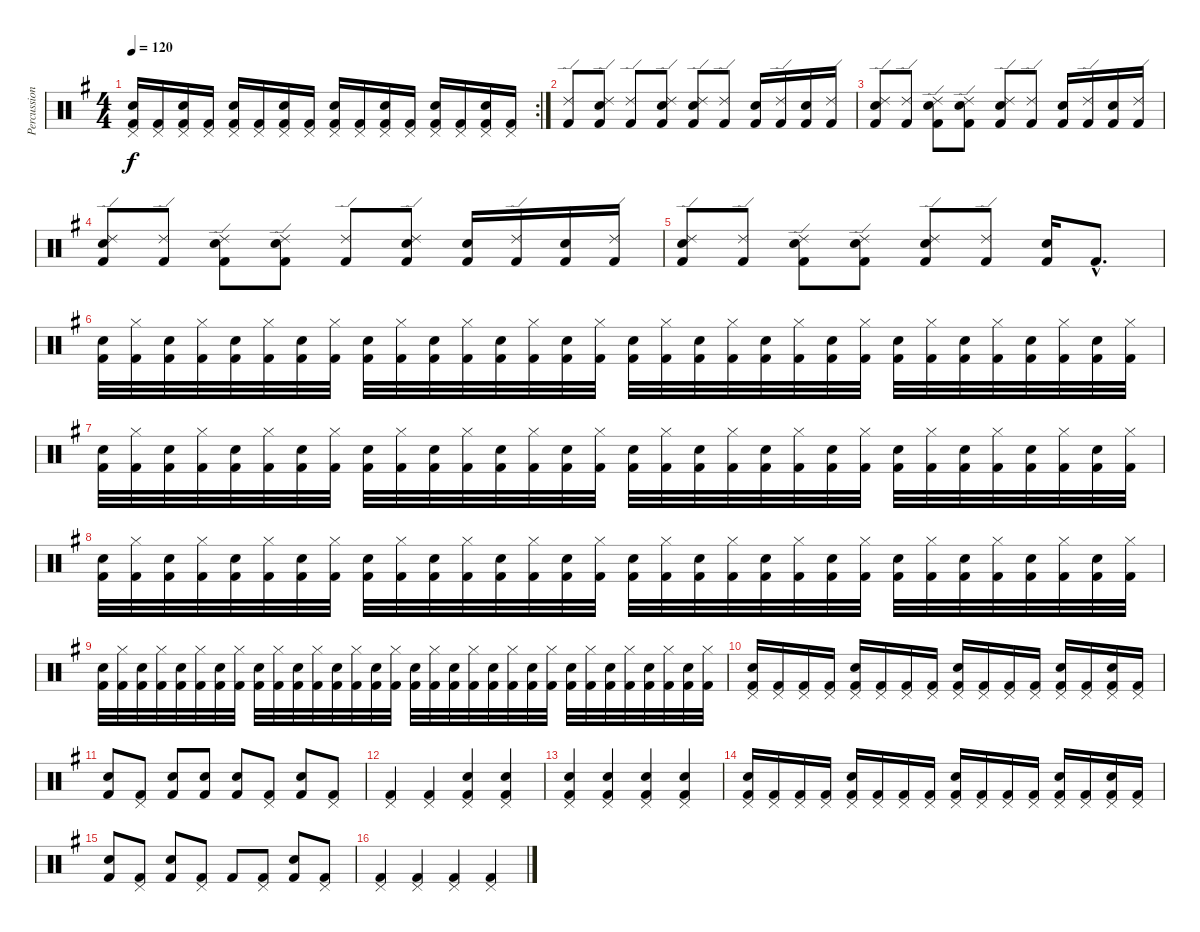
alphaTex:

\track ("Percussion" "Percussion") {instrument percussion}
\staff {score}
\articulation defaults
\rc 2
\ts (4 4)
\tempo 120
\clef neutral
\ks eminor
("Pedal Hi-Hat (hit)" "Snare (hit) 2" "Kick (hit) 2").16{dy f} ("Pedal Hi-Hat (hit)" "Kick (hit) 2").16 ("Pedal Hi-Hat (hit)" "Snare (hit) 2" "Kick (hit) 2").16 ("Pedal Hi-Hat (hit)" "Kick (hit) 2").16 ("Pedal Hi-Hat (hit)" "Snare (hit) 2" "Kick (hit) 2").16 ("Pedal Hi-Hat (hit)" "Kick (hit) 2").16 ("Pedal Hi-Hat (hit)" "Snare (hit) 2" "Kick (hit) 2").16 ("Pedal Hi-Hat (hit)" "Kick (hit) 2").16 ("Pedal Hi-Hat (hit)" "Snare (hit) 2" "Kick (hit) 2").16 ("Pedal Hi-Hat (hit)" "Kick (hit) 2").16 ("Pedal Hi-Hat (hit)" "Snare (hit) 2" "Kick (hit) 2").16 ("Pedal Hi-Hat (hit)" "Kick (hit) 2").16 ("Pedal Hi-Hat (hit)" "Snare (hit) 2" "Kick (hit) 2").16 ("Pedal Hi-Hat (hit)" "Kick (hit) 2").16 ("Pedal Hi-Hat (hit)" "Snare (hit) 2" "Kick (hit) 2").16 ("Pedal Hi-Hat (hit)" "Kick (hit) 2").16 |
("Ride (edge) 2" "Kick (hit) 2").8 ("Ride (edge) 2" "Snare (hit) 2" "Kick (hit) 2").8 ("Ride (edge) 2" "Kick (hit) 2").8 ("Ride (edge) 2" "Snare (hit) 2" "Kick (hit) 2").8 ("Ride (edge) 2" "Snare (hit) 2" "Kick (hit) 2").8 ("Ride (edge) 2" "Kick (hit) 2").8 ("Snare (hit) 2" "Kick (hit) 2").16 ("Ride (edge) 2" "Kick (hit) 2").16 ("Snare (hit) 2" "Kick (hit) 2").16 ("Ride (edge) 2" "Kick (hit) 2").16 |
("Ride (edge) 2" "Snare (hit) 2" "Kick (hit) 2").8 ("Ride (edge) 2" "Kick (hit) 2").8 ("Ride (edge) 2" "Snare (hit) 2" "Kick (hit) 2").8 ("Ride (edge) 2" "Snare (hit) 2" "Kick (hit) 2").8 ("Ride (edge) 2" "Snare (hit) 2" "Kick (hit) 2").8 ("Ride (edge) 2" "Kick (hit) 2").8 ("Snare (hit) 2" "Kick (hit) 2").16 ("Ride (edge) 2" "Kick (hit) 2").16 ("Snare (hit) 2" "Kick (hit) 2").16 ("Ride (edge) 2" "Kick (hit) 2").16 |
("Ride (edge) 2" "Snare (hit) 2" "Kick (hit) 2").8 ("Ride (edge) 2" "Kick (hit) 2").8 ("Ride (edge) 2" "Snare (hit) 2" "Kick (hit) 2").8 ("Ride (edge) 2" "Snare (hit) 2" "Kick (hit) 2").8 ("Ride (edge) 2" "Kick (hit) 2").8 ("Ride (edge) 2" "Snare (hit) 2" "Kick (hit) 2").8 ("Snare (hit) 2" "Kick (hit) 2").16 ("Ride (edge) 2" "Kick (hit) 2").16 ("Snare (hit) 2" "Kick (hit) 2").16 ("Ride (edge) 2" "Kick (hit) 2").16 |
("Ride (edge) 2" "Snare (hit) 2" "Kick (hit) 2").8 ("Ride (edge) 2" "Kick (hit) 2").8 ("Ride (edge) 2" "Snare (hit) 2" "Kick (hit) 2").8 ("Ride (edge) 2" "Snare (hit) 2" "Kick (hit) 2").8 ("Ride (edge) 2" "Snare (hit) 2" "Kick (hit) 2").8 ("Ride (edge) 2" "Kick (hit) 2").8 ("Snare (hit) 2" "Kick (hit) 2").16 "Kick (hit) 2"{hac}.8{d} |
("Snare (hit) 2" "Kick (hit) 2").32 ("Hi-Hat (closed)" "Kick (hit) 2").32 ("Snare (hit) 2" "Kick (hit) 2").32 ("Hi-Hat (closed)" "Kick (hit) 2").32 ("Snare (hit) 2" "Kick (hit) 2").32 ("Hi-Hat (closed)" "Kick (hit) 2").32 ("Snare (hit) 2" "Kick (hit) 2").32 ("Hi-Hat (closed)" "Kick (hit) 2").32 ("Snare (hit) 2" "Kick (hit) 2").32 ("Hi-Hat (closed)" "Kick (hit) 2").32 ("Snare (hit) 2" "Kick (hit) 2").32 ("Hi-Hat (closed)" "Kick (hit) 2").32 ("Snare (hit) 2" "Kick (hit) 2").32 ("Hi-Hat (closed)" "Kick (hit) 2").32 ("Snare (hit) 2" "Kick (hit) 2").32 ("Hi-Hat (closed)" "Kick (hit) 2").32 ("Snare (hit) 2" "Kick (hit) 2").32 ("Hi-Hat (closed)" "Kick (hit) 2").32 ("Snare (hit) 2" "Kick (hit) 2").32 ("Hi-Hat (closed)" "Kick (hit) 2").32 ("Snare (hit) 2" "Kick (hit) 2").32 ("Hi-Hat (closed)" "Kick (hit) 2").32 ("Snare (hit) 2" "Kick (hit) 2").32 ("Hi-Hat (closed)" "Kick (hit) 2").32 ("Snare (hit) 2" "Kick (hit) 2").32 ("Hi-Hat (closed)" "Kick (hit) 2").32 ("Snare (hit) 2" "Kick (hit) 2").32 ("Hi-Hat (closed)" "Kick (hit) 2").32 ("Snare (hit) 2" "Kick (hit) 2").32 ("Hi-Hat (closed)" "Kick (hit) 2").32 ("Snare (hit) 2" "Kick (hit) 2").32 ("Hi-Hat (closed)" "Kick (hit) 2").32 |
("Snare (hit) 2" "Kick (hit) 2").32 ("Hi-Hat (closed)" "Kick (hit) 2").32 ("Snare (hit) 2" "Kick (hit) 2").32 ("Hi-Hat (closed)" "Kick (hit) 2").32 ("Snare (hit) 2" "Kick (hit) 2").32 ("Hi-Hat (closed)" "Kick (hit) 2").32 ("Snare (hit) 2" "Kick (hit) 2").32 ("Hi-Hat (closed)" "Kick (hit) 2").32 ("Snare (hit) 2" "Kick (hit) 2").32 ("Hi-Hat (closed)" "Kick (hit) 2").32 ("Snare (hit) 2" "Kick (hit) 2").32 ("Hi-Hat (closed)" "Kick (hit) 2").32 ("Snare (hit) 2" "Kick (hit) 2").32 ("Hi-Hat (closed)" "Kick (hit) 2").32 ("Snare (hit) 2" "Kick (hit) 2").32 ("Hi-Hat (closed)" "Kick (hit) 2").32 ("Snare (hit) 2" "Kick (hit) 2").32 ("Hi-Hat (closed)" "Kick (hit) 2").32 ("Snare (hit) 2" "Kick (hit) 2").32 ("Hi-Hat (closed)" "Kick (hit) 2").32 ("Snare (hit) 2" "Kick (hit) 2").32 ("Hi-Hat (closed)" "Kick (hit) 2").32 ("Snare (hit) 2" "Kick (hit) 2").32 ("Hi-Hat (closed)" "Kick (hit) 2").32 ("Snare (hit) 2" "Kick (hit) 2").32 ("Hi-Hat (closed)" "Kick (hit) 2").32 ("Snare (hit) 2" "Kick (hit) 2").32 ("Hi-Hat (closed)" "Kick (hit) 2").32 ("Snare (hit) 2" "Kick (hit) 2").32 ("Hi-Hat (closed)" "Kick (hit) 2").32 ("Snare (hit) 2" "Kick (hit) 2").32 ("Hi-Hat (closed)" "Kick (hit) 2").32 |
("Snare (hit) 2" "Kick (hit) 2").32 ("Hi-Hat (closed)" "Kick (hit) 2").32 ("Snare (hit) 2" "Kick (hit) 2").32 ("Hi-Hat (closed)" "Kick (hit) 2").32 ("Snare (hit) 2" "Kick (hit) 2").32 ("Hi-Hat (closed)" "Kick (hit) 2").32 ("Snare (hit) 2" "Kick (hit) 2").32 ("Hi-Hat (closed)" "Kick (hit) 2").32 ("Snare (hit) 2" "Kick (hit) 2").32 ("Hi-Hat (closed)" "Kick (hit) 2").32 ("Snare (hit) 2" "Kick (hit) 2").32 ("Hi-Hat (closed)" "Kick (hit) 2").32 ("Snare (hit) 2" "Kick (hit) 2").32 ("Hi-Hat (closed)" "Kick (hit) 2").32 ("Snare (hit) 2" "Kick (hit) 2").32 ("Hi-Hat (closed)" "Kick (hit) 2").32 ("Snare (hit) 2" "Kick (hit) 2").32 ("Hi-Hat (closed)" "Kick (hit) 2").32 ("Snare (hit) 2" "Kick (hit) 2").32 ("Hi-Hat (closed)" "Kick (hit) 2").32 ("Snare (hit) 2" "Kick (hit) 2").32 ("Hi-Hat (closed)" "Kick (hit) 2").32 ("Snare (hit) 2" "Kick (hit) 2").32 ("Hi-Hat (closed)" "Kick (hit) 2").32 ("Snare (hit) 2" "Kick (hit) 2").32 ("Hi-Hat (closed)" "Kick (hit) 2").32 ("Snare (hit) 2" "Kick (hit) 2").32 ("Hi-Hat (closed)" "Kick (hit) 2").32 ("Snare (hit) 2" "Kick (hit) 2").32 ("Hi-Hat (closed)" "Kick (hit) 2").32 ("Snare (hit) 2" "Kick (hit) 2").32 ("Hi-Hat (closed)" "Kick (hit) 2").32 |
("Snare (hit) 2" "Kick (hit) 2").32 ("Hi-Hat (closed)" "Kick (hit) 2").32 ("Snare (hit) 2" "Kick (hit) 2").32 ("Hi-Hat (closed)" "Kick (hit) 2").32 ("Snare (hit) 2" "Kick (hit) 2").32 ("Hi-Hat (closed)" "Kick (hit) 2").32 ("Snare (hit) 2" "Kick (hit) 2").32 ("Hi-Hat (closed)" "Kick (hit) 2").32 ("Snare (hit) 2" "Kick (hit) 2").32 ("Hi-Hat (closed)" "Kick (hit) 2").32 ("Snare (hit) 2" "Kick (hit) 2").32 ("Hi-Hat (closed)" "Kick (hit) 2").32 ("Snare (hit) 2" "Kick (hit) 2").32 ("Hi-Hat (closed)" "Kick (hit) 2").32 ("Snare (hit) 2" "Kick (hit) 2").32 ("Hi-Hat (closed)" "Kick (hit) 2").32 ("Snare (hit) 2" "Kick (hit) 2").32 ("Hi-Hat (closed)" "Kick (hit) 2").32 ("Snare (hit) 2" "Kick (hit) 2").32 ("Hi-Hat (closed)" "Kick (hit) 2").32 ("Snare (hit) 2" "Kick (hit) 2").32 ("Hi-Hat (closed)" "Kick (hit) 2").32 ("Snare (hit) 2" "Kick (hit) 2").32 ("Hi-Hat (closed)" "Kick (hit) 2").32 ("Snare (hit) 2" "Kick (hit) 2").32 ("Hi-Hat (closed)" "Kick (hit) 2").32 ("Snare (hit) 2" "Kick (hit) 2").32 ("Hi-Hat (closed)" "Kick (hit) 2").32 ("Snare (hit) 2" "Kick (hit) 2").32 ("Hi-Hat (closed)" "Kick (hit) 2").32 ("Snare (hit) 2" "Kick (hit) 2").32 ("Hi-Hat (closed)" "Kick (hit) 2").32 |
("Pedal Hi-Hat (hit)" "Electric Snare (hit)" "Kick (hit) 2").16 ("Pedal Hi-Hat (hit)" "Kick (hit) 2").16 ("Pedal Hi-Hat (hit)" "Kick (hit) 2").16 ("Pedal Hi-Hat (hit)" "Kick (hit) 2").16 ("Pedal Hi-Hat (hit)" "Electric Snare (hit)" "Kick (hit) 2").16 ("Pedal Hi-Hat (hit)" "Kick (hit) 2").16 ("Pedal Hi-Hat (hit)" "Kick (hit) 2").16 ("Pedal Hi-Hat (hit)" "Kick (hit) 2").16 ("Pedal Hi-Hat (hit)" "Electric Snare (hit)" "Kick (hit) 2").16 ("Pedal Hi-Hat (hit)" "Kick (hit) 2").16 ("Pedal Hi-Hat (hit)" "Kick (hit) 2").16 ("Pedal Hi-Hat (hit)" "Kick (hit) 2").16 ("Pedal Hi-Hat (hit)" "Electric Snare (hit)" "Kick (hit) 2").16 ("Pedal Hi-Hat (hit)" "Kick (hit) 2").16 ("Pedal Hi-Hat (hit)" "Electric Snare (hit)" "Kick (hit) 2").16 ("Pedal Hi-Hat (hit)" "Kick (hit) 2").16 |
("Electric Snare (hit)" "Kick (hit) 2").8 ("Pedal Hi-Hat (hit)" "Kick (hit) 2").8 ("Electric Snare (hit)" "Kick (hit) 2").8 ("Snare (hit)" "Kick (hit) 2").8 ("Electric Snare (hit)" "Kick (hit) 2").8 ("Pedal Hi-Hat (hit)" "Kick (hit) 2").8 ("Electric Snare (hit)" "Kick (hit) 2").8 ("Pedal Hi-Hat (hit)" "Kick (hit) 2").8 |
("Pedal Hi-Hat (hit)" "Kick (hit) 2").4 ("Pedal Hi-Hat (hit)" "Kick (hit) 2").4 ("Pedal Hi-Hat (hit)" "Electric Snare (hit)" "Kick (hit) 2").4 ("Pedal Hi-Hat (hit)" "Electric Snare (hit)" "Kick (hit) 2").4 |
("Pedal Hi-Hat (hit)" "Electric Snare (hit)" "Kick (hit) 2").4 ("Pedal Hi-Hat (hit)" "Electric Snare (hit)" "Kick (hit) 2").4 ("Pedal Hi-Hat (hit)" "Electric Snare (hit)" "Kick (hit) 2").4 ("Pedal Hi-Hat (hit)" "Electric Snare (hit)" "Kick (hit) 2").4 |
("Pedal Hi-Hat (hit)" "Electric Snare (hit)" "Kick (hit) 2").16 ("Pedal Hi-Hat (hit)" "Kick (hit) 2").16 ("Pedal Hi-Hat (hit)" "Kick (hit) 2").16 ("Pedal Hi-Hat (hit)" "Kick (hit) 2").16 ("Pedal Hi-Hat (hit)" "Electric Snare (hit)" "Kick (hit) 2").16 ("Pedal Hi-Hat (hit)" "Kick (hit) 2").16 ("Pedal Hi-Hat (hit)" "Kick (hit) 2").16 ("Pedal Hi-Hat (hit)" "Kick (hit) 2").16 ("Pedal Hi-Hat (hit)" "Electric Snare (hit)" "Kick (hit) 2").16 ("Pedal Hi-Hat (hit)" "Kick (hit) 2").16 ("Pedal Hi-Hat (hit)" "Kick (hit) 2").16 ("Pedal Hi-Hat (hit)" "Kick (hit) 2").16 ("Pedal Hi-Hat (hit)" "Electric Snare (hit)" "Kick (hit) 2").16 ("Pedal Hi-Hat (hit)" "Kick (hit) 2").16 ("Pedal Hi-Hat (hit)" "Electric Snare (hit)" "Kick (hit) 2").16 ("Pedal Hi-Hat (hit)" "Kick (hit) 2").16 |
("Electric Snare (hit)" "Kick (hit) 2").8 ("Pedal Hi-Hat (hit)" "Kick (hit) 2").8 ("Electric Snare (hit)" "Kick (hit) 2").8 ("Pedal Hi-Hat (hit)" "Kick (hit) 2").8 "Kick (hit) 2".8 ("Pedal Hi-Hat (hit)" "Kick (hit) 2").8 ("Electric Snare (hit)" "Kick (hit) 2").8 ("Pedal Hi-Hat (hit)" "Kick (hit) 2").8 |
("Pedal Hi-Hat (hit)" "Kick (hit) 2").4 ("Pedal Hi-Hat (hit)" "Kick (hit) 2").4 ("Pedal Hi-Hat (hit)" "Kick (hit) 2").4 ("Pedal Hi-Hat (hit)" "Kick (hit) 2").4
